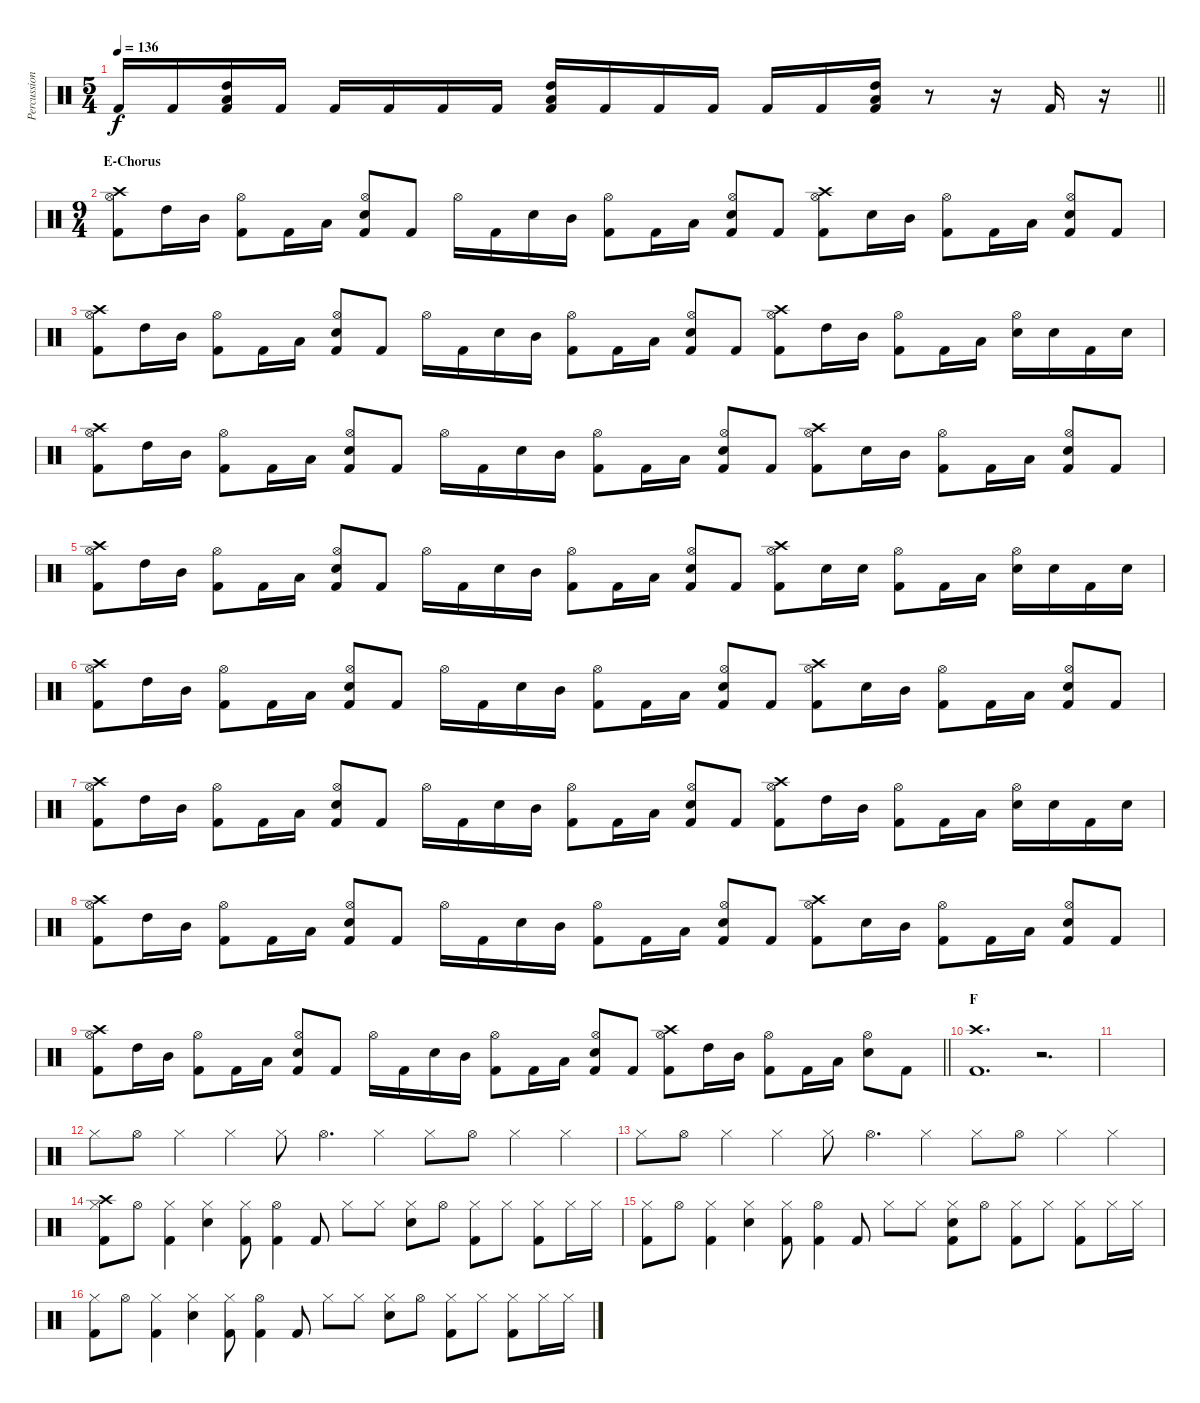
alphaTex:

\track ("Percussions" "Percussion") {instrument percussion}
\staff {score}
\articulation defaults
\ts (5 4)
\tempo 136
\clef neutral
\barLineRight lightlight
\ks c "Kick (hit) 2".16{dy f} "Kick (hit) 2".16
("Low Tom (hit)" "High Tom (hit)" "Kick (hit) 2").16 "Kick (hit) 2".16 "Kick (hit) 2".16 "Kick (hit) 2".16 "Kick (hit) 2".16 "Kick (hit) 2".16 ("Low Tom (hit)" "High Tom (hit)" "Kick (hit) 2").16 "Kick (hit) 2".16 "Kick (hit) 2".16 "Kick (hit) 2".16 "Kick (hit) 2".16 "Kick (hit) 2".16 ("Low Tom (hit)" "High Tom (hit)" "Kick (hit) 2").16 r.8 r.16 "Kick (hit) 2".16 r.16 |
\ts (9 4)
\section ("" "E-Chorus")
("Crash high (hit)" "Hi-Hat (open)" "Kick (hit) 2").8 "High Tom (hit)".16 "Mid Tom (hit)".16 ("Hi-Hat (open)" "Kick (hit) 2").8 "Kick (hit) 2".16 "Low Tom (hit)".16 ("Hi-Hat (open)" "Snare (hit) 2" "Kick (hit) 2").8 "Kick (hit) 2".8 "Hi-Hat (open)".16 "Kick (hit) 2".16 "Snare (hit) 2".16 "Mid Tom (hit)".16 ("Hi-Hat (open)" "Kick (hit) 2").8 "Kick (hit) 2".16 "Low Tom (hit)".16 ("Hi-Hat (open)" "Snare (hit) 2" "Kick (hit) 2").8 "Kick (hit) 2".8 ("Crash high (hit)" "Hi-Hat (open)" "Kick (hit) 2").8 "Snare (hit) 2".16 "Mid Tom (hit)".16 ("Hi-Hat (open)" "Kick (hit) 2").8 "Kick (hit) 2".16 "Low Tom (hit)".16 ("Hi-Hat (open)" "Snare (hit) 2" "Kick (hit) 2").8 "Kick (hit) 2".8 |
("Crash high (hit)" "Hi-Hat (open)" "Kick (hit) 2").8 "High Tom (hit)".16 "Mid Tom (hit)".16 ("Hi-Hat (open)" "Kick (hit) 2").8 "Kick (hit) 2".16 "Low Tom (hit)".16 ("Hi-Hat (open)" "Snare (hit) 2" "Kick (hit) 2").8 "Kick (hit) 2".8 "Hi-Hat (open)".16 "Kick (hit) 2".16 "Snare (hit) 2".16 "Mid Tom (hit)".16 ("Hi-Hat (open)" "Kick (hit) 2").8 "Kick (hit) 2".16 "Low Tom (hit)".16 ("Hi-Hat (open)" "Snare (hit) 2" "Kick (hit) 2").8 "Kick (hit) 2".8 ("Crash high (hit)" "Hi-Hat (open)" "Kick (hit) 2").8 "High Tom (hit)".16 "Mid Tom (hit)".16 ("Hi-Hat (open)" "Kick (hit) 2").8 "Kick (hit) 2".16 "Low Tom (hit)".16 ("Hi-Hat (open)" "Snare (hit) 2").16 "Snare (hit) 2".16 "Kick (hit) 2".16 "Snare (hit) 2".16 |
("Crash high (hit)" "Hi-Hat (open)" "Kick (hit) 2").8 "High Tom (hit)".16 "Mid Tom (hit)".16 ("Hi-Hat (open)" "Kick (hit) 2").8 "Kick (hit) 2".16 "Low Tom (hit)".16 ("Hi-Hat (open)" "Snare (hit) 2" "Kick (hit) 2").8 "Kick (hit) 2".8 "Hi-Hat (open)".16 "Kick (hit) 2".16 "Snare (hit) 2".16 "Mid Tom (hit)".16 ("Hi-Hat (open)" "Kick (hit) 2").8 "Kick (hit) 2".16 "Low Tom (hit)".16 ("Hi-Hat (open)" "Snare (hit) 2" "Kick (hit) 2").8 "Kick (hit) 2".8 ("Crash high (hit)" "Hi-Hat (open)" "Kick (hit) 2").8 "Snare (hit) 2".16 "Mid Tom (hit)".16 ("Hi-Hat (open)" "Kick (hit) 2").8 "Kick (hit) 2".16 "Low Tom (hit)".16 ("Hi-Hat (open)" "Snare (hit) 2" "Kick (hit) 2").8 "Kick (hit) 2".8 |
("Crash high (hit)" "Hi-Hat (open)" "Kick (hit) 2").8 "High Tom (hit)".16 "Mid Tom (hit)".16 ("Hi-Hat (open)" "Kick (hit) 2").8 "Kick (hit) 2".16 "Low Tom (hit)".16 ("Hi-Hat (open)" "Snare (hit) 2" "Kick (hit) 2").8 "Kick (hit) 2".8 "Hi-Hat (open)".16 "Kick (hit) 2".16 "Snare (hit) 2".16 "Mid Tom (hit)".16 ("Hi-Hat (open)" "Kick (hit) 2").8 "Kick (hit) 2".16 "Low Tom (hit)".16 ("Hi-Hat (open)" "Snare (hit) 2" "Kick (hit) 2").8 "Kick (hit) 2".8 ("Crash high (hit)" "Hi-Hat (open)" "Kick (hit) 2").8 "Snare (hit) 2".16 "Snare (hit) 2".16 ("Hi-Hat (open)" "Kick (hit) 2").8 "Kick (hit) 2".16 "Low Tom (hit)".16 ("Hi-Hat (open)" "Snare (hit) 2").16 "Snare (hit) 2".16 "Kick (hit) 2".16 "Snare (hit) 2".16 |
("Crash high (hit)" "Hi-Hat (open)" "Kick (hit) 2").8 "High Tom (hit)".16 "Mid Tom (hit)".16 ("Hi-Hat (open)" "Kick (hit) 2").8 "Kick (hit) 2".16 "Low Tom (hit)".16 ("Hi-Hat (open)" "Snare (hit) 2" "Kick (hit) 2").8 "Kick (hit) 2".8 "Hi-Hat (open)".16 "Kick (hit) 2".16 "Snare (hit) 2".16 "Mid Tom (hit)".16 ("Hi-Hat (open)" "Kick (hit) 2").8 "Kick (hit) 2".16 "Low Tom (hit)".16 ("Hi-Hat (open)" "Snare (hit) 2" "Kick (hit) 2").8 "Kick (hit) 2".8 ("Crash high (hit)" "Hi-Hat (open)" "Kick (hit) 2").8 "Snare (hit) 2".16 "Mid Tom (hit)".16 ("Hi-Hat (open)" "Kick (hit) 2").8 "Kick (hit) 2".16 "Low Tom (hit)".16 ("Hi-Hat (open)" "Snare (hit) 2" "Kick (hit) 2").8 "Kick (hit) 2".8 |
("Crash high (hit)" "Hi-Hat (open)" "Kick (hit) 2").8 "High Tom (hit)".16 "Mid Tom (hit)".16 ("Hi-Hat (open)" "Kick (hit) 2").8 "Kick (hit) 2".16 "Low Tom (hit)".16 ("Hi-Hat (open)" "Snare (hit) 2" "Kick (hit) 2").8 "Kick (hit) 2".8 "Hi-Hat (open)".16 "Kick (hit) 2".16 "Snare (hit) 2".16 "Mid Tom (hit)".16 ("Hi-Hat (open)" "Kick (hit) 2").8 "Kick (hit) 2".16 "Low Tom (hit)".16 ("Hi-Hat (open)" "Snare (hit) 2" "Kick (hit) 2").8 "Kick (hit) 2".8 ("Crash high (hit)" "Hi-Hat (open)" "Kick (hit) 2").8 "High Tom (hit)".16 "Mid Tom (hit)".16 ("Hi-Hat (open)" "Kick (hit) 2").8 "Kick (hit) 2".16 "Low Tom (hit)".16 ("Hi-Hat (open)" "Snare (hit) 2").16 "Snare (hit) 2".16 "Kick (hit) 2".16 "Snare (hit) 2".16 |
("Crash high (hit)" "Hi-Hat (open)" "Kick (hit) 2").8 "High Tom (hit)".16 "Mid Tom (hit)".16 ("Hi-Hat (open)" "Kick (hit) 2").8 "Kick (hit) 2".16 "Low Tom (hit)".16 ("Hi-Hat (open)" "Snare (hit) 2" "Kick (hit) 2").8 "Kick (hit) 2".8 "Hi-Hat (open)".16 "Kick (hit) 2".16 "Snare (hit) 2".16 "Mid Tom (hit)".16 ("Hi-Hat (open)" "Kick (hit) 2").8 "Kick (hit) 2".16 "Low Tom (hit)".16 ("Hi-Hat (open)" "Snare (hit) 2" "Kick (hit) 2").8 "Kick (hit) 2".8 ("Crash high (hit)" "Hi-Hat (open)" "Kick (hit) 2").8 "Snare (hit) 2".16 "Mid Tom (hit)".16 ("Hi-Hat (open)" "Kick (hit) 2").8 "Kick (hit) 2".16 "Low Tom (hit)".16 ("Hi-Hat (open)" "Snare (hit) 2" "Kick (hit) 2").8 "Kick (hit) 2".8 |
\barLineRight lightlight
("Crash high (hit)" "Hi-Hat (open)" "Kick (hit) 2").8 "High Tom (hit)".16 "Mid Tom (hit)".16 ("Hi-Hat (open)" "Kick (hit) 2").8 "Kick (hit) 2".16 "Low Tom (hit)".16 ("Hi-Hat (open)" "Snare (hit) 2" "Kick (hit) 2").8 "Kick (hit) 2".8 "Hi-Hat (open)".16 "Kick (hit) 2".16 "Snare (hit) 2".16 "Mid Tom (hit)".16 ("Hi-Hat (open)" "Kick (hit) 2").8 "Kick (hit) 2".16 "Low Tom (hit)".16 ("Hi-Hat (open)" "Snare (hit) 2" "Kick (hit) 2").8 "Kick (hit) 2".8 ("Crash high (hit)" "Hi-Hat (open)" "Kick (hit) 2").8 "High Tom (hit)".16 "Mid Tom (hit)".16 ("Hi-Hat (open)" "Kick (hit) 2").8 "Kick (hit) 2".16 "Low Tom (hit)".16 ("Hi-Hat (open)" "Snare (hit) 2").8 "Kick (hit) 2".8 |
\section ("" "F")
("Crash high (hit)" "Kick (hit) 2").1{d} r.2{d} |
|
"Hi-Hat (closed)".8 "Hi-Hat (open)".8 "Hi-Hat (closed)".4 "Hi-Hat (closed)".4 "Hi-Hat (closed)".8 "Hi-Hat (open)".4{d} "Hi-Hat (closed)".4 "Hi-Hat (closed)".8 "Hi-Hat (open)".8 "Hi-Hat (closed)".4 "Hi-Hat (closed)".4 |
"Hi-Hat (closed)".8 "Hi-Hat (open)".8 "Hi-Hat (closed)".4 "Hi-Hat (closed)".4 "Hi-Hat (closed)".8 "Hi-Hat (open)".4{d} "Hi-Hat (closed)".4 "Hi-Hat (closed)".8 "Hi-Hat (open)".8 "Hi-Hat (closed)".4 "Hi-Hat (closed)".4 |
("Crash high (hit)" "Hi-Hat (closed)" "Kick (hit) 2").8 "Hi-Hat (open)".8 ("Hi-Hat (closed)" "Kick (hit) 2").4 ("Hi-Hat (closed)" "Snare (hit) 2").4 ("Hi-Hat (closed)" "Kick (hit) 2").8 ("Hi-Hat (open)" "Kick (hit) 2").4 "Kick (hit) 2".8 "Hi-Hat (closed)".8 "Hi-Hat (closed)".8 ("Hi-Hat (closed)" "Snare (hit) 2").8 "Hi-Hat (open)".8 ("Hi-Hat (closed)" "Kick (hit) 2").8 "Hi-Hat (closed)".8 ("Hi-Hat (closed)" "Kick (hit) 2").8 "Hi-Hat (closed)".16 "Hi-Hat (closed)".16 |
("Hi-Hat (closed)" "Kick (hit) 2").8 "Hi-Hat (open)".8 ("Hi-Hat (closed)" "Kick (hit) 2").4 ("Hi-Hat (closed)" "Snare (hit) 2").4 ("Hi-Hat (closed)" "Kick (hit) 2").8 ("Hi-Hat (open)" "Kick (hit) 2").4 "Kick (hit) 2".8 "Hi-Hat (closed)".8 "Hi-Hat (closed)".8 ("Hi-Hat (closed)" "Snare (hit) 2" "Kick (hit) 2").8 "Hi-Hat (open)".8 ("Hi-Hat (closed)" "Kick (hit) 2").8 "Hi-Hat (closed)".8 ("Hi-Hat (closed)" "Kick (hit) 2").8 "Hi-Hat (closed)".16 "Hi-Hat (closed)".16 |
("Hi-Hat (closed)" "Kick (hit) 2").8 "Hi-Hat (open)".8 ("Hi-Hat (closed)" "Kick (hit) 2").4 ("Hi-Hat (closed)" "Snare (hit) 2").4 ("Hi-Hat (closed)" "Kick (hit) 2").8 ("Hi-Hat (open)" "Kick (hit) 2").4 "Kick (hit) 2".8 "Hi-Hat (closed)".8 "Hi-Hat (closed)".8 ("Hi-Hat (closed)" "Snare (hit) 2").8 "Hi-Hat (open)".8 ("Hi-Hat (closed)" "Kick (hit) 2").8 "Hi-Hat (closed)".8 ("Hi-Hat (closed)" "Kick (hit) 2").8 "Hi-Hat (closed)".16 "Hi-Hat (closed)".16
